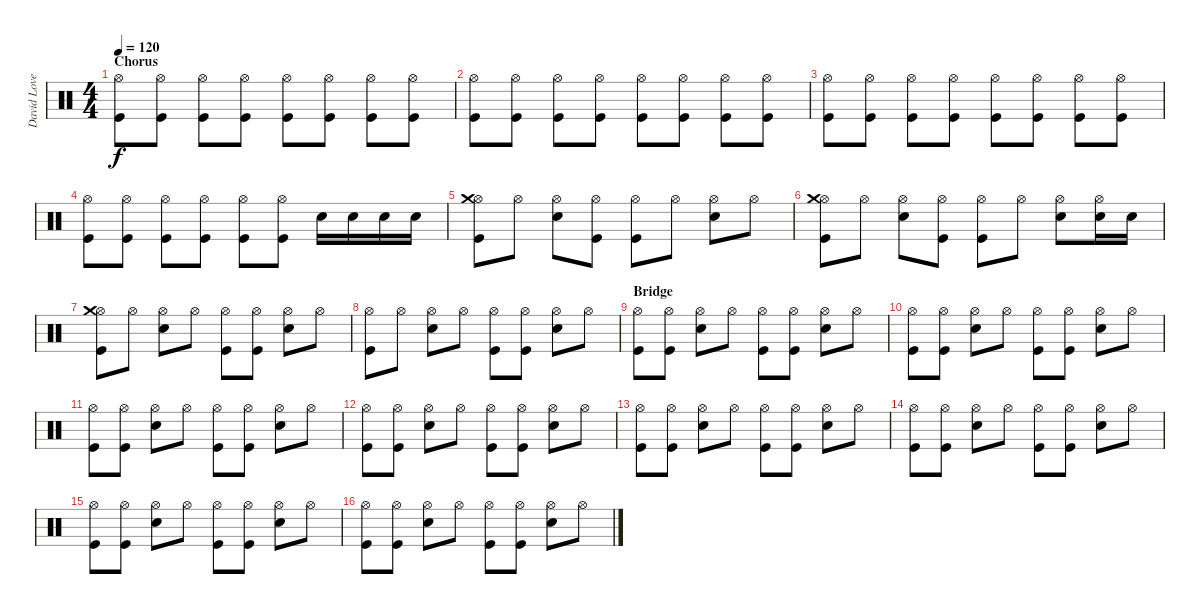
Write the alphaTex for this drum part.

\track ("David Lovering" "David Love") {instrument percussion}
\staff {score}
\articulation defaults
\ts (4 4)
\section ("" "Chorus")
\tempo 120
\clef neutral
\ks c
("Hi-Hat (open)" "Kick (hit)").8{dy f} ("Hi-Hat (open)" "Kick (hit)").8 ("Hi-Hat (open)" "Kick (hit)").8 ("Hi-Hat (open)" "Kick (hit)").8 ("Hi-Hat (open)" "Kick (hit)").8 ("Hi-Hat (open)" "Kick (hit)").8 ("Hi-Hat (open)" "Kick (hit)").8 ("Hi-Hat (open)" "Kick (hit)").8 |
("Hi-Hat (open)" "Kick (hit)").8 ("Hi-Hat (open)" "Kick (hit)").8 ("Hi-Hat (open)" "Kick (hit)").8 ("Hi-Hat (open)" "Kick (hit)").8 ("Hi-Hat (open)" "Kick (hit)").8 ("Hi-Hat (open)" "Kick (hit)").8 ("Hi-Hat (open)" "Kick (hit)").8 ("Hi-Hat (open)" "Kick (hit)").8 |
("Hi-Hat (open)" "Kick (hit)").8 ("Hi-Hat (open)" "Kick (hit)").8 ("Hi-Hat (open)" "Kick (hit)").8 ("Hi-Hat (open)" "Kick (hit)").8 ("Hi-Hat (open)" "Kick (hit)").8 ("Hi-Hat (open)" "Kick (hit)").8 ("Hi-Hat (open)" "Kick (hit)").8 ("Hi-Hat (open)" "Kick (hit)").8 |
("Hi-Hat (open)" "Kick (hit)").8 ("Hi-Hat (open)" "Kick (hit)").8 ("Hi-Hat (open)" "Kick (hit)").8 ("Hi-Hat (open)" "Kick (hit)").8 ("Hi-Hat (open)" "Kick (hit)").8 ("Hi-Hat (open)" "Kick (hit)").8 "Snare (hit) 2".16 "Snare (hit) 2".16 "Snare (hit) 2".16 "Snare (hit) 2".16 |
("Hi-Hat (open)" "Crash medium (hit)" "Kick (hit)").8 "Hi-Hat (open)".8 ("Hi-Hat (open)" "Snare (hit) 2").8 ("Hi-Hat (open)" "Kick (hit)").8 ("Hi-Hat (open)" "Kick (hit)").8 "Hi-Hat (open)".8 ("Hi-Hat (open)" "Snare (hit) 2").8 "Hi-Hat (open)".8 |
("Hi-Hat (open)" "Crash medium (hit)" "Kick (hit)").8 "Hi-Hat (open)".8 ("Hi-Hat (open)" "Snare (hit) 2").8 ("Hi-Hat (open)" "Kick (hit)").8 ("Hi-Hat (open)" "Kick (hit)").8 "Hi-Hat (open)".8 ("Hi-Hat (open)" "Snare (hit) 2").8 ("Hi-Hat (open)" "Snare (hit) 2").16 "Snare (hit) 2".16 |
("Hi-Hat (open)" "Crash medium (hit)" "Kick (hit)").8 "Hi-Hat (open)".8 ("Hi-Hat (open)" "Snare (hit) 2").8 "Hi-Hat (open)".8 ("Hi-Hat (open)" "Kick (hit)").8 ("Hi-Hat (open)" "Kick (hit)").8 ("Hi-Hat (open)" "Snare (hit) 2").8 "Hi-Hat (open)".8 |
("Hi-Hat (open)" "Kick (hit)").8 "Hi-Hat (open)".8 ("Hi-Hat (open)" "Snare (hit) 2").8 "Hi-Hat (open)".8 ("Hi-Hat (open)" "Kick (hit)").8 ("Hi-Hat (open)" "Kick (hit)").8 ("Hi-Hat (open)" "Snare (hit) 2").8 "Hi-Hat (open)".8 |
\section ("" "Bridge")
("Hi-Hat (open)" "Kick (hit)").8 ("Hi-Hat (open)" "Kick (hit)").8 ("Hi-Hat (open)" "Snare (hit) 2").8 "Hi-Hat (open)".8 ("Hi-Hat (open)" "Kick (hit)").8 ("Hi-Hat (open)" "Kick (hit)").8 ("Hi-Hat (open)" "Snare (hit) 2").8 "Hi-Hat (open)".8 |
("Hi-Hat (open)" "Kick (hit)").8 ("Hi-Hat (open)" "Kick (hit)").8 ("Hi-Hat (open)" "Snare (hit) 2").8 "Hi-Hat (open)".8 ("Hi-Hat (open)" "Kick (hit)").8 ("Hi-Hat (open)" "Kick (hit)").8 ("Hi-Hat (open)" "Snare (hit) 2").8 "Hi-Hat (open)".8 |
("Hi-Hat (open)" "Kick (hit)").8 ("Hi-Hat (open)" "Kick (hit)").8 ("Hi-Hat (open)" "Snare (hit) 2").8 "Hi-Hat (open)".8 ("Hi-Hat (open)" "Kick (hit)").8 ("Hi-Hat (open)" "Kick (hit)").8 ("Hi-Hat (open)" "Snare (hit) 2").8 "Hi-Hat (open)".8 |
("Hi-Hat (open)" "Kick (hit)").8 ("Hi-Hat (open)" "Kick (hit)").8 ("Hi-Hat (open)" "Snare (hit) 2").8 "Hi-Hat (open)".8 ("Hi-Hat (open)" "Kick (hit)").8 ("Hi-Hat (open)" "Kick (hit)").8 ("Hi-Hat (open)" "Snare (hit) 2").8 "Hi-Hat (open)".8 |
("Hi-Hat (open)" "Kick (hit)").8 ("Hi-Hat (open)" "Kick (hit)").8 ("Hi-Hat (open)" "Snare (hit) 2").8 "Hi-Hat (open)".8 ("Hi-Hat (open)" "Kick (hit)").8 ("Hi-Hat (open)" "Kick (hit)").8 ("Hi-Hat (open)" "Snare (hit) 2").8 "Hi-Hat (open)".8 |
("Hi-Hat (open)" "Kick (hit)").8 ("Hi-Hat (open)" "Kick (hit)").8 ("Hi-Hat (open)" "Snare (hit) 2").8 "Hi-Hat (open)".8 ("Hi-Hat (open)" "Kick (hit)").8 ("Hi-Hat (open)" "Kick (hit)").8 ("Hi-Hat (open)" "Snare (hit) 2").8 "Hi-Hat (open)".8 |
("Hi-Hat (open)" "Kick (hit)").8 ("Hi-Hat (open)" "Kick (hit)").8 ("Hi-Hat (open)" "Snare (hit) 2").8 "Hi-Hat (open)".8 ("Hi-Hat (open)" "Kick (hit)").8 ("Hi-Hat (open)" "Kick (hit)").8 ("Hi-Hat (open)" "Snare (hit) 2").8 "Hi-Hat (open)".8 |
("Hi-Hat (open)" "Kick (hit)").8 ("Hi-Hat (open)" "Kick (hit)").8 ("Hi-Hat (open)" "Snare (hit) 2").8 "Hi-Hat (open)".8 ("Hi-Hat (open)" "Kick (hit)").8 ("Hi-Hat (open)" "Kick (hit)").8 ("Hi-Hat (open)" "Snare (hit) 2").8 "Hi-Hat (open)".8
